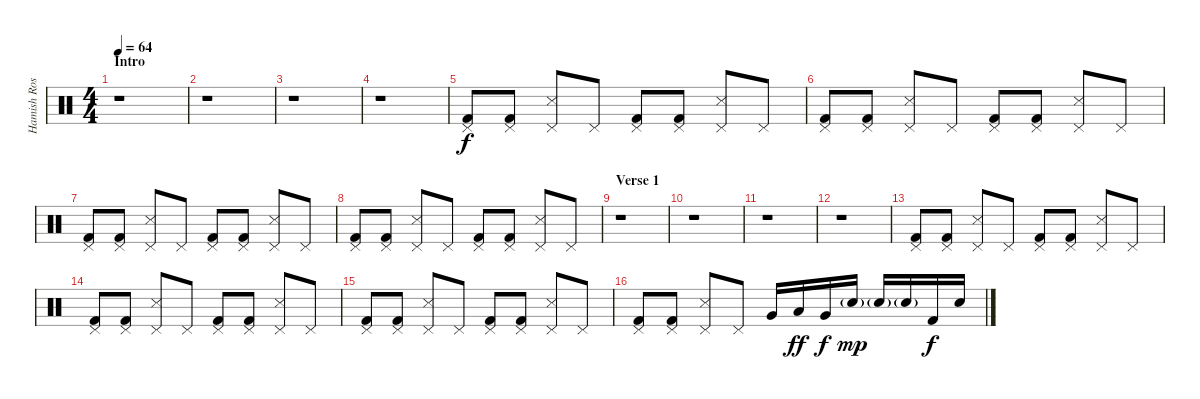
\track ("Hamish Rosser" "Hamish Ros") {instrument percussion}
\staff {score}
\articulation defaults
\ts (4 4)
\section ("" "Intro")
\tempo 64
\clef neutral
\ks c
r.1{dy f} |
r.1 |
r.1 |
r.1 |
("Pedal Hi-Hat (hit)" "Kick (hit) 2").8 ("Pedal Hi-Hat (hit)" "Kick (hit) 2").8 ("Pedal Hi-Hat (hit)" "Snare (side stick) 3").8 "Pedal Hi-Hat (hit)".8 ("Pedal Hi-Hat (hit)" "Kick (hit) 2").8 ("Pedal Hi-Hat (hit)" "Kick (hit) 2").8 ("Pedal Hi-Hat (hit)" "Snare (side stick) 3").8 "Pedal Hi-Hat (hit)".8 |
("Pedal Hi-Hat (hit)" "Kick (hit) 2").8 ("Pedal Hi-Hat (hit)" "Kick (hit) 2").8 ("Pedal Hi-Hat (hit)" "Snare (side stick) 3").8 "Pedal Hi-Hat (hit)".8 ("Pedal Hi-Hat (hit)" "Kick (hit) 2").8 ("Pedal Hi-Hat (hit)" "Kick (hit) 2").8 ("Pedal Hi-Hat (hit)" "Snare (side stick) 3").8 "Pedal Hi-Hat (hit)".8 |
("Pedal Hi-Hat (hit)" "Kick (hit) 2").8 ("Pedal Hi-Hat (hit)" "Kick (hit) 2").8 ("Pedal Hi-Hat (hit)" "Snare (side stick) 3").8 "Pedal Hi-Hat (hit)".8 ("Pedal Hi-Hat (hit)" "Kick (hit) 2").8 ("Pedal Hi-Hat (hit)" "Kick (hit) 2").8 ("Pedal Hi-Hat (hit)" "Snare (side stick) 3").8 "Pedal Hi-Hat (hit)".8 |
("Pedal Hi-Hat (hit)" "Kick (hit) 2").8 ("Pedal Hi-Hat (hit)" "Kick (hit) 2").8 ("Pedal Hi-Hat (hit)" "Snare (side stick) 3").8 "Pedal Hi-Hat (hit)".8 ("Pedal Hi-Hat (hit)" "Kick (hit) 2").8 ("Pedal Hi-Hat (hit)" "Kick (hit) 2").8 ("Pedal Hi-Hat (hit)" "Snare (side stick) 3").8 "Pedal Hi-Hat (hit)".8 |
\section ("" "Verse 1")
r.1 |
r.1 |
r.1 |
r.1 |
("Pedal Hi-Hat (hit)" "Kick (hit) 2").8 ("Pedal Hi-Hat (hit)" "Kick (hit) 2").8 ("Pedal Hi-Hat (hit)" "Snare (side stick) 3").8 "Pedal Hi-Hat (hit)".8 ("Pedal Hi-Hat (hit)" "Kick (hit) 2").8 ("Pedal Hi-Hat (hit)" "Kick (hit) 2").8 ("Pedal Hi-Hat (hit)" "Snare (side stick) 3").8 "Pedal Hi-Hat (hit)".8 |
("Pedal Hi-Hat (hit)" "Kick (hit) 2").8 ("Pedal Hi-Hat (hit)" "Kick (hit) 2").8 ("Pedal Hi-Hat (hit)" "Snare (side stick) 3").8 "Pedal Hi-Hat (hit)".8 ("Pedal Hi-Hat (hit)" "Kick (hit) 2").8 ("Pedal Hi-Hat (hit)" "Kick (hit) 2").8 ("Pedal Hi-Hat (hit)" "Snare (side stick) 3").8 "Pedal Hi-Hat (hit)".8 |
("Pedal Hi-Hat (hit)" "Kick (hit) 2").8 ("Pedal Hi-Hat (hit)" "Kick (hit) 2").8 ("Pedal Hi-Hat (hit)" "Snare (side stick) 3").8 "Pedal Hi-Hat (hit)".8 ("Pedal Hi-Hat (hit)" "Kick (hit) 2").8 ("Pedal Hi-Hat (hit)" "Kick (hit) 2").8 ("Pedal Hi-Hat (hit)" "Snare (side stick) 3").8 "Pedal Hi-Hat (hit)".8 |
("Pedal Hi-Hat (hit)" "Kick (hit) 2").8 ("Pedal Hi-Hat (hit)" "Kick (hit) 2").8 ("Pedal Hi-Hat (hit)" "Snare (side stick) 3").8 "Pedal Hi-Hat (hit)".8 "Very Low Tom (hit)".16 "Low Tom (hit)".16{dy ff} "Very Low Tom (hit)".16{dy f} "Electric Snare (hit)"{g}.16{dy mp} "Electric Snare (hit)"{g}.16 "Electric Snare (hit)"{g}.16 "Kick (hit) 2".16{dy f} "Electric Snare (hit)".16
